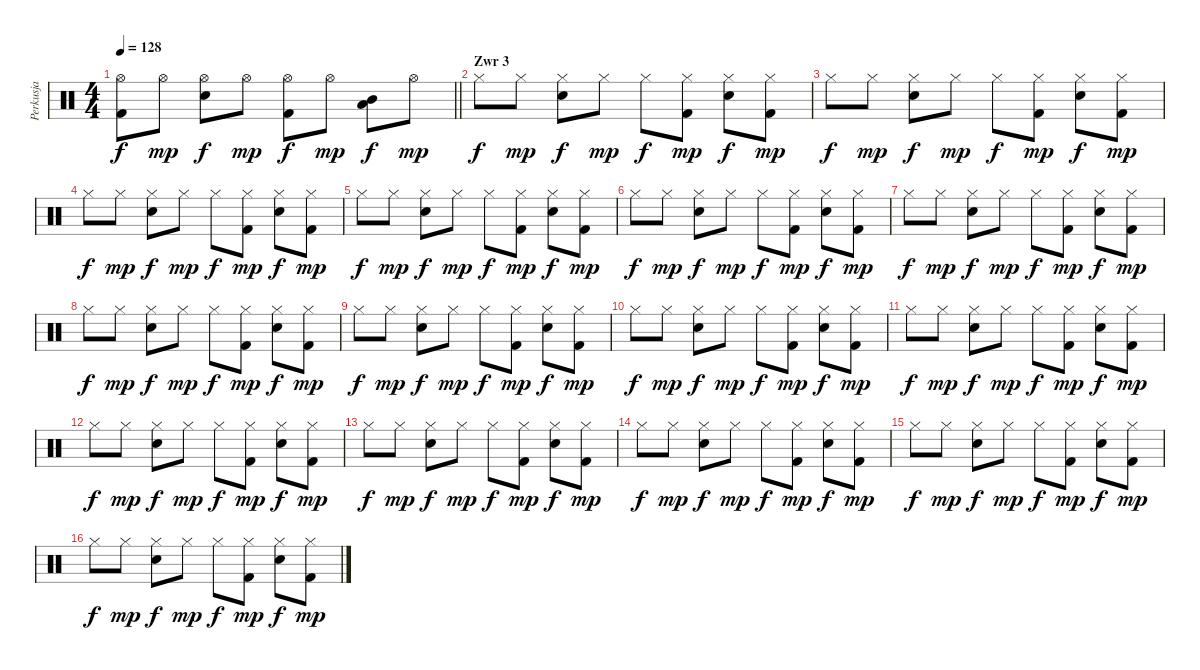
\track ("Perkusja" "Perkusja") {instrument percussion}
\staff {score}
\articulation defaults
\ts (4 4)
\tempo 128
\clef neutral
\barLineRight lightlight
\ks c
("Hi-Hat (open)" "Kick (hit) 2").8{dy f} "Hi-Hat (open)".8{dy mp} ("Hi-Hat (open)" "Electric Snare (hit)").8{dy f} "Hi-Hat (open)".8{dy mp} ("Hi-Hat (open)" "Kick (hit) 2").8{dy f} "Hi-Hat (open)".8{dy mp} ("Mid Tom (hit)" "Low Tom (hit)").8{dy f} "Hi-Hat (open)".8{dy mp} |
\section ("" "Zwr 3")
"Hi-Hat (closed)".8{dy f} "Hi-Hat (closed)".8{dy mp} ("Hi-Hat (closed)" "Electric Snare (hit)").8{dy f} "Hi-Hat (closed)".8{dy mp} "Hi-Hat (closed)".8{dy f} ("Hi-Hat (closed)" "Kick (hit) 2").8{dy mp} ("Hi-Hat (closed)" "Electric Snare (hit)").8{dy f} ("Hi-Hat (closed)" "Kick (hit) 2").8{dy mp} |
"Hi-Hat (closed)".8{dy f} "Hi-Hat (closed)".8{dy mp} ("Hi-Hat (closed)" "Electric Snare (hit)").8{dy f} "Hi-Hat (closed)".8{dy mp} "Hi-Hat (closed)".8{dy f} ("Hi-Hat (closed)" "Kick (hit) 2").8{dy mp} ("Hi-Hat (closed)" "Electric Snare (hit)").8{dy f} ("Hi-Hat (closed)" "Kick (hit) 2").8{dy mp} |
"Hi-Hat (closed)".8{dy f} "Hi-Hat (closed)".8{dy mp} ("Hi-Hat (closed)" "Electric Snare (hit)").8{dy f} "Hi-Hat (closed)".8{dy mp} "Hi-Hat (closed)".8{dy f} ("Hi-Hat (closed)" "Kick (hit) 2").8{dy mp} ("Hi-Hat (closed)" "Electric Snare (hit)").8{dy f} ("Hi-Hat (closed)" "Kick (hit) 2").8{dy mp} |
"Hi-Hat (closed)".8{dy f} "Hi-Hat (closed)".8{dy mp} ("Hi-Hat (closed)" "Electric Snare (hit)").8{dy f} "Hi-Hat (closed)".8{dy mp} "Hi-Hat (closed)".8{dy f} ("Hi-Hat (closed)" "Kick (hit) 2").8{dy mp} ("Hi-Hat (closed)" "Electric Snare (hit)").8{dy f} ("Hi-Hat (closed)" "Kick (hit) 2").8{dy mp} |
"Hi-Hat (closed)".8{dy f} "Hi-Hat (closed)".8{dy mp} ("Hi-Hat (closed)" "Electric Snare (hit)").8{dy f} "Hi-Hat (closed)".8{dy mp} "Hi-Hat (closed)".8{dy f} ("Hi-Hat (closed)" "Kick (hit) 2").8{dy mp} ("Hi-Hat (closed)" "Electric Snare (hit)").8{dy f} ("Hi-Hat (closed)" "Kick (hit) 2").8{dy mp} |
"Hi-Hat (closed)".8{dy f} "Hi-Hat (closed)".8{dy mp} ("Hi-Hat (closed)" "Electric Snare (hit)").8{dy f} "Hi-Hat (closed)".8{dy mp} "Hi-Hat (closed)".8{dy f} ("Hi-Hat (closed)" "Kick (hit) 2").8{dy mp} ("Hi-Hat (closed)" "Electric Snare (hit)").8{dy f} ("Hi-Hat (closed)" "Kick (hit) 2").8{dy mp} |
"Hi-Hat (closed)".8{dy f} "Hi-Hat (closed)".8{dy mp} ("Hi-Hat (closed)" "Electric Snare (hit)").8{dy f} "Hi-Hat (closed)".8{dy mp} "Hi-Hat (closed)".8{dy f} ("Hi-Hat (closed)" "Kick (hit) 2").8{dy mp} ("Hi-Hat (closed)" "Electric Snare (hit)").8{dy f} ("Hi-Hat (closed)" "Kick (hit) 2").8{dy mp} |
"Hi-Hat (closed)".8{dy f} "Hi-Hat (closed)".8{dy mp} ("Hi-Hat (closed)" "Electric Snare (hit)").8{dy f} "Hi-Hat (closed)".8{dy mp} "Hi-Hat (closed)".8{dy f} ("Hi-Hat (closed)" "Kick (hit) 2").8{dy mp} ("Hi-Hat (closed)" "Electric Snare (hit)").8{dy f} ("Hi-Hat (closed)" "Kick (hit) 2").8{dy mp} |
"Hi-Hat (closed)".8{dy f} "Hi-Hat (closed)".8{dy mp} ("Hi-Hat (closed)" "Electric Snare (hit)").8{dy f} "Hi-Hat (closed)".8{dy mp} "Hi-Hat (closed)".8{dy f} ("Hi-Hat (closed)" "Kick (hit) 2").8{dy mp} ("Hi-Hat (closed)" "Electric Snare (hit)").8{dy f} ("Hi-Hat (closed)" "Kick (hit) 2").8{dy mp} |
"Hi-Hat (closed)".8{dy f} "Hi-Hat (closed)".8{dy mp} ("Hi-Hat (closed)" "Electric Snare (hit)").8{dy f} "Hi-Hat (closed)".8{dy mp} "Hi-Hat (closed)".8{dy f} ("Hi-Hat (closed)" "Kick (hit) 2").8{dy mp} ("Hi-Hat (closed)" "Electric Snare (hit)").8{dy f} ("Hi-Hat (closed)" "Kick (hit) 2").8{dy mp} |
"Hi-Hat (closed)".8{dy f} "Hi-Hat (closed)".8{dy mp} ("Hi-Hat (closed)" "Electric Snare (hit)").8{dy f} "Hi-Hat (closed)".8{dy mp} "Hi-Hat (closed)".8{dy f} ("Hi-Hat (closed)" "Kick (hit) 2").8{dy mp} ("Hi-Hat (closed)" "Electric Snare (hit)").8{dy f} ("Hi-Hat (closed)" "Kick (hit) 2").8{dy mp} |
"Hi-Hat (closed)".8{dy f} "Hi-Hat (closed)".8{dy mp} ("Hi-Hat (closed)" "Electric Snare (hit)").8{dy f} "Hi-Hat (closed)".8{dy mp} "Hi-Hat (closed)".8{dy f} ("Hi-Hat (closed)" "Kick (hit) 2").8{dy mp} ("Hi-Hat (closed)" "Electric Snare (hit)").8{dy f} ("Hi-Hat (closed)" "Kick (hit) 2").8{dy mp} |
"Hi-Hat (closed)".8{dy f} "Hi-Hat (closed)".8{dy mp} ("Hi-Hat (closed)" "Electric Snare (hit)").8{dy f} "Hi-Hat (closed)".8{dy mp} "Hi-Hat (closed)".8{dy f} ("Hi-Hat (closed)" "Kick (hit) 2").8{dy mp} ("Hi-Hat (closed)" "Electric Snare (hit)").8{dy f} ("Hi-Hat (closed)" "Kick (hit) 2").8{dy mp} |
"Hi-Hat (closed)".8{dy f} "Hi-Hat (closed)".8{dy mp} ("Hi-Hat (closed)" "Electric Snare (hit)").8{dy f} "Hi-Hat (closed)".8{dy mp} "Hi-Hat (closed)".8{dy f} ("Hi-Hat (closed)" "Kick (hit) 2").8{dy mp} ("Hi-Hat (closed)" "Electric Snare (hit)").8{dy f} ("Hi-Hat (closed)" "Kick (hit) 2").8{dy mp} |
"Hi-Hat (closed)".8{dy f} "Hi-Hat (closed)".8{dy mp} ("Hi-Hat (closed)" "Electric Snare (hit)").8{dy f} "Hi-Hat (closed)".8{dy mp} "Hi-Hat (closed)".8{dy f} ("Hi-Hat (closed)" "Kick (hit) 2").8{dy mp} ("Hi-Hat (closed)" "Electric Snare (hit)").8{dy f} ("Hi-Hat (closed)" "Kick (hit) 2").8{dy mp}
